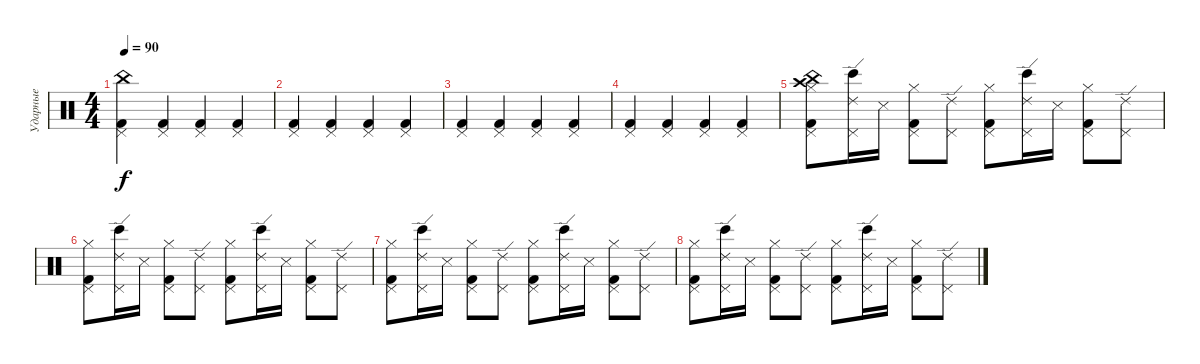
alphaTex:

\track ("Ударные" "Ударные") {instrument percussion}
\staff {score}
\articulation defaults
\ts (4 4)
\tempo 90
\clef neutral
\ks c
("Kick (hit) 2" "Pedal Hi-Hat (hit)" "China (hit)").4{dy f} ("Kick (hit) 2" "Pedal Hi-Hat (hit)").4 ("Kick (hit) 2" "Pedal Hi-Hat (hit)").4 ("Kick (hit) 2" "Pedal Hi-Hat (hit)").4 |
("Kick (hit) 2" "Pedal Hi-Hat (hit)").4 ("Kick (hit) 2" "Pedal Hi-Hat (hit)").4 ("Kick (hit) 2" "Pedal Hi-Hat (hit)").4 ("Kick (hit) 2" "Pedal Hi-Hat (hit)").4 |
("Kick (hit) 2" "Pedal Hi-Hat (hit)").4 ("Kick (hit) 2" "Pedal Hi-Hat (hit)").4 ("Kick (hit) 2" "Pedal Hi-Hat (hit)").4 ("Kick (hit) 2" "Pedal Hi-Hat (hit)").4 |
("Kick (hit) 2" "Pedal Hi-Hat (hit)").4 ("Kick (hit) 2" "Pedal Hi-Hat (hit)").4 ("Kick (hit) 2" "Pedal Hi-Hat (hit)").4 ("Kick (hit) 2" "Pedal Hi-Hat (hit)").4 |
("Kick (hit) 2" "Pedal Hi-Hat (hit)" "China (hit)" "Crash high (hit)" "Hi-Hat (closed)").8 ("Bongo High (hit)" "Pedal Hi-Hat (hit)" "Ride (edge) 2").16 "Snare (side stick) 3".16 ("Kick (hit) 2" "Pedal Hi-Hat (hit)" "Hi-Hat (closed)").8 ("Pedal Hi-Hat (hit)" "Ride (edge) 2").8 ("Kick (hit) 2" "Pedal Hi-Hat (hit)" "Hi-Hat (closed)").8 ("Bongo High (hit)" "Pedal Hi-Hat (hit)" "Ride (edge) 2").16 "Snare (side stick) 3".16 ("Kick (hit) 2" "Pedal Hi-Hat (hit)" "Hi-Hat (closed)").8 ("Pedal Hi-Hat (hit)" "Ride (edge) 2").8 |
("Kick (hit) 2" "Pedal Hi-Hat (hit)" "Hi-Hat (closed)").8 ("Bongo High (hit)" "Pedal Hi-Hat (hit)" "Ride (edge) 2").16 "Snare (side stick) 3".16 ("Kick (hit) 2" "Pedal Hi-Hat (hit)" "Hi-Hat (closed)").8 ("Pedal Hi-Hat (hit)" "Ride (edge) 2").8 ("Kick (hit) 2" "Pedal Hi-Hat (hit)" "Hi-Hat (closed)").8 ("Bongo High (hit)" "Pedal Hi-Hat (hit)" "Ride (edge) 2").16 "Snare (side stick) 3".16 ("Kick (hit) 2" "Pedal Hi-Hat (hit)" "Hi-Hat (closed)").8 ("Pedal Hi-Hat (hit)" "Ride (edge) 2").8 |
("Kick (hit) 2" "Pedal Hi-Hat (hit)" "Hi-Hat (closed)").8 ("Bongo High (hit)" "Pedal Hi-Hat (hit)" "Ride (edge) 2").16 "Snare (side stick) 3".16 ("Kick (hit) 2" "Pedal Hi-Hat (hit)" "Hi-Hat (closed)").8 ("Pedal Hi-Hat (hit)" "Ride (edge) 2").8 ("Kick (hit) 2" "Pedal Hi-Hat (hit)" "Hi-Hat (closed)").8 ("Bongo High (hit)" "Pedal Hi-Hat (hit)" "Ride (edge) 2").16 "Snare (side stick) 3".16 ("Kick (hit) 2" "Pedal Hi-Hat (hit)" "Hi-Hat (closed)").8 ("Pedal Hi-Hat (hit)" "Ride (edge) 2").8 |
("Kick (hit) 2" "Pedal Hi-Hat (hit)" "Hi-Hat (closed)").8 ("Bongo High (hit)" "Pedal Hi-Hat (hit)" "Ride (edge) 2").16 "Snare (side stick) 3".16 ("Kick (hit) 2" "Pedal Hi-Hat (hit)" "Hi-Hat (closed)").8 ("Pedal Hi-Hat (hit)" "Ride (edge) 2").8 ("Kick (hit) 2" "Pedal Hi-Hat (hit)" "Hi-Hat (closed)").8 ("Bongo High (hit)" "Pedal Hi-Hat (hit)" "Ride (edge) 2").16 "Snare (side stick) 3".16 ("Kick (hit) 2" "Pedal Hi-Hat (hit)" "Hi-Hat (closed)").8 ("Pedal Hi-Hat (hit)" "Ride (edge) 2").8
